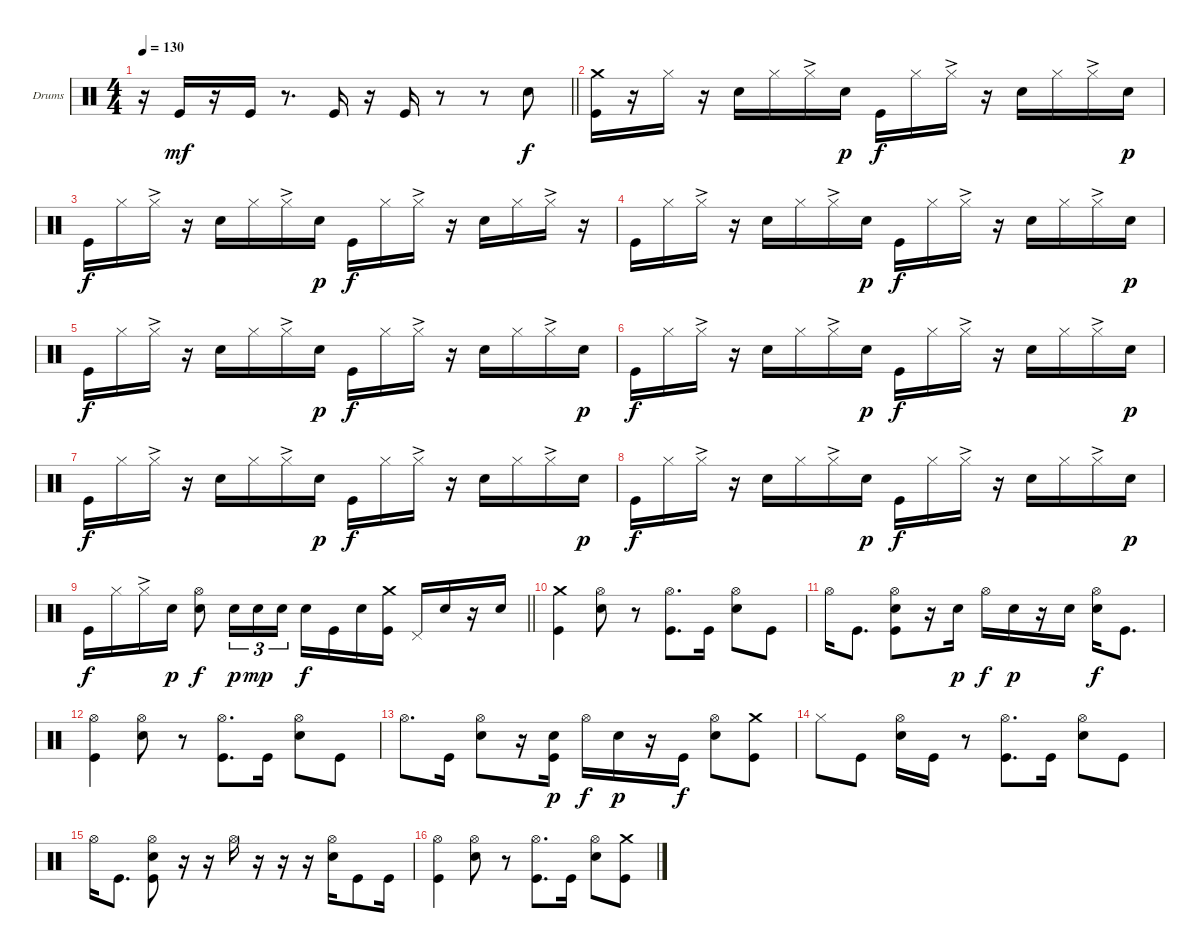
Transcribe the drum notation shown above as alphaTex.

\defaultSystemsLayout 4
\bracketExtendMode groupsimilarinstruments
\firstSystemTrackNameOrientation horizontal
\otherSystemsTrackNameOrientation horizontal
\track ("Drumkit" "Drums") {instrument percussion}
\staff {score}
\articulation defaults
\ts (4 4)
\tempo 130
\clef neutral
\barLineRight lightlight
\ks c
r.16{dy f} "Kick (hit)".16{dy mf} r.16 "Kick (hit)".16 r.8{d} "Kick (hit)".16 r.16 "Kick (hit)".16 r.8 r.8 "Snare (hit) 2".8{dy f} |
("Crash medium (hit)" "Kick (hit)").16 r.16 "Hi-Hat (closed)".16 r.16 "Snare (hit) 2".16 "Hi-Hat (closed)".16 "Hi-Hat (closed)"{ac}.16 "Snare (hit) 2".16{dy p} "Kick (hit)".16{dy f} "Hi-Hat (closed)".16 "Hi-Hat (closed)"{ac}.16 r.16 "Snare (hit) 2".16 "Hi-Hat (closed)".16 "Hi-Hat (closed)"{ac}.16 "Snare (hit) 2".16{dy p} |
"Kick (hit)".16{dy f} "Hi-Hat (closed)".16 "Hi-Hat (closed)"{ac}.16 r.16 "Snare (hit) 2".16 "Hi-Hat (closed)".16 "Hi-Hat (closed)"{ac}.16 "Snare (hit) 2".16{dy p} "Kick (hit)".16{dy f} "Hi-Hat (closed)".16 "Hi-Hat (closed)"{ac}.16 r.16 "Snare (hit) 2".16 "Hi-Hat (closed)".16 "Hi-Hat (closed)"{ac}.16 r.16 |
"Kick (hit)".16 "Hi-Hat (closed)".16 "Hi-Hat (closed)"{ac}.16 r.16 "Snare (hit) 2".16 "Hi-Hat (closed)".16 "Hi-Hat (closed)"{ac}.16 "Snare (hit) 2".16{dy p} "Kick (hit)".16{dy f} "Hi-Hat (closed)".16 "Hi-Hat (closed)"{ac}.16 r.16 "Snare (hit) 2".16 "Hi-Hat (closed)".16 "Hi-Hat (closed)"{ac}.16 "Snare (hit) 2".16{dy p} |
"Kick (hit)".16{dy f} "Hi-Hat (closed)".16 "Hi-Hat (closed)"{ac}.16 r.16 "Snare (hit) 2".16 "Hi-Hat (closed)".16 "Hi-Hat (closed)"{ac}.16 "Snare (hit) 2".16{dy p} "Kick (hit)".16{dy f} "Hi-Hat (closed)".16 "Hi-Hat (closed)"{ac}.16 r.16 "Snare (hit) 2".16 "Hi-Hat (closed)".16 "Hi-Hat (closed)"{ac}.16 "Snare (hit) 2".16{dy p} |
"Kick (hit)".16{dy f} "Hi-Hat (closed)".16 "Hi-Hat (closed)"{ac}.16 r.16 "Snare (hit) 2".16 "Hi-Hat (closed)".16 "Hi-Hat (closed)"{ac}.16 "Snare (hit) 2".16{dy p} "Kick (hit)".16{dy f} "Hi-Hat (closed)".16 "Hi-Hat (closed)"{ac}.16 r.16 "Snare (hit) 2".16 "Hi-Hat (closed)".16 "Hi-Hat (closed)"{ac}.16 "Snare (hit) 2".16{dy p} |
"Kick (hit)".16{dy f} "Hi-Hat (closed)".16 "Hi-Hat (closed)"{ac}.16 r.16 "Snare (hit) 2".16 "Hi-Hat (closed)".16 "Hi-Hat (closed)"{ac}.16 "Snare (hit) 2".16{dy p} "Kick (hit)".16{dy f} "Hi-Hat (closed)".16 "Hi-Hat (closed)"{ac}.16 r.16 "Snare (hit) 2".16 "Hi-Hat (closed)".16 "Hi-Hat (closed)"{ac}.16 "Snare (hit) 2".16{dy p} |
"Kick (hit)".16{dy f} "Hi-Hat (closed)".16 "Hi-Hat (closed)"{ac}.16 r.16 "Snare (hit) 2".16 "Hi-Hat (closed)".16 "Hi-Hat (closed)"{ac}.16 "Snare (hit) 2".16{dy p} "Kick (hit)".16{dy f} "Hi-Hat (closed)".16 "Hi-Hat (closed)"{ac}.16 r.16 "Snare (hit) 2".16 "Hi-Hat (closed)".16 "Hi-Hat (closed)"{ac}.16 "Snare (hit) 2".16{dy p} |
\barLineRight lightlight "Kick (hit)".16{dy f} "Hi-Hat (closed)".16 "Hi-Hat (closed)"{ac}.16 "Snare (hit) 2".16{dy p}
("Snare (hit) 2" "Hi-Hat (open)").8{dy f} "Snare (hit) 2".16{tu (3 2) dy p} "Snare (hit) 2".16{tu (3 2) dy mp} "Snare (hit) 2".16{tu (3 2)} "Snare (hit) 2".16{dy f} "Kick (hit)".16 "Snare (hit) 2".16 ("Kick (hit)" "Crash medium (hit)").16 "Pedal Hi-Hat (hit)".16 "Snare (hit) 2".16 r.16 "Snare (hit) 2".16 |
("Kick (hit)" "Crash medium (hit)").4 ("Hi-Hat (open)" "Snare (hit) 2").8 r.8 ("Hi-Hat (open)" "Kick (hit)").8{d} "Kick (hit)".16 ("Hi-Hat (open)" "Snare (hit) 2").8 "Kick (hit)".8 |
"Hi-Hat (open)".16 "Kick (hit)".8{d} ("Hi-Hat (open)" "Snare (hit) 2" "Kick (hit)").8 r.16 "Snare (hit) 2".16{dy p} "Hi-Hat (open)".16{dy f} "Snare (hit) 2".16{dy p} r.16 "Snare (hit) 2".16 ("Hi-Hat (open)" "Snare (hit) 2").16{dy f} "Kick (hit)".8{d} |
("Kick (hit)" "Hi-Hat (open)").4 ("Hi-Hat (open)" "Snare (hit) 2").8 r.8 ("Hi-Hat (open)" "Kick (hit)").8{d} "Kick (hit)".16 ("Hi-Hat (open)" "Snare (hit) 2").8 "Kick (hit)".8 |
"Hi-Hat (open)".8{d} "Kick (hit)".16 ("Hi-Hat (open)" "Snare (hit) 2").8 r.16 ("Snare (hit) 2" "Kick (hit)").16{dy p} "Hi-Hat (open)".16{dy f} "Snare (hit) 2".16{dy p} r.16 "Kick (hit)".16{dy f} ("Hi-Hat (open)" "Snare (hit) 2").8 ("Kick (hit)" "Crash medium (hit)").8 |
"Hi-Hat (closed)".8 "Kick (hit)".8 ("Hi-Hat (open)" "Snare (hit) 2").16 "Kick (hit)".16 r.8 ("Hi-Hat (open)" "Kick (hit)").8{d} "Kick (hit)".16 ("Hi-Hat (open)" "Snare (hit) 2").8 "Kick (hit)".8 |
"Hi-Hat (open)".16 "Kick (hit)".8{d} ("Hi-Hat (open)" "Snare (hit) 2" "Kick (hit)").8 r.16 r.16 "Hi-Hat (open)".16 r.16 r.16 r.16 ("Hi-Hat (open)" "Snare (hit) 2").16 "Kick (hit)".8 "Kick (hit)".16 |
("Kick (hit)" "Hi-Hat (open)").4 ("Hi-Hat (open)" "Snare (hit) 2").8 r.8 ("Hi-Hat (open)" "Kick (hit)").8{d} "Kick (hit)".16 ("Hi-Hat (open)" "Snare (hit) 2").8 ("Kick (hit)" "Crash medium (hit)").8
